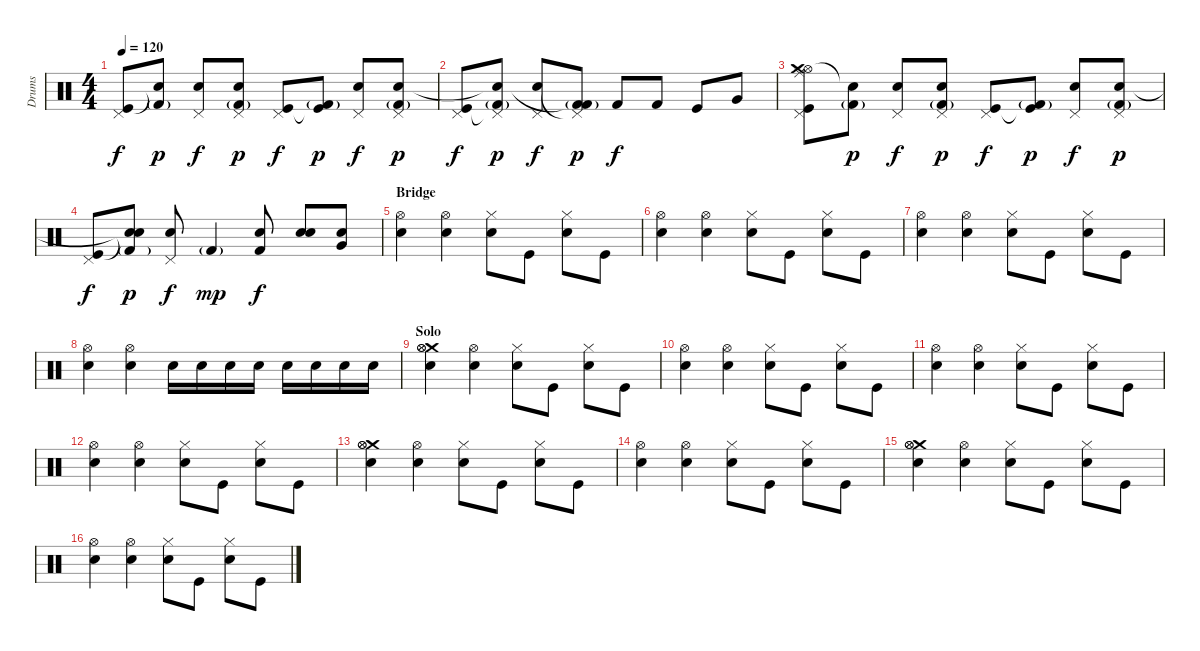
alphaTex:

\track ("Drums" "Drums") {instrument percussion}
\staff {score}
\articulation defaults
\ts (4 4)
\tempo 120
\clef neutral
\ks c
("Pedal Hi-Hat (hit)" "Kick (hit)").8{dy f} ("Kick (hit) 2"{g} "Snare (hit) 2"{t}).8{dy p} ("Pedal Hi-Hat (hit)" "Snare (hit) 2").8{dy f} ("Kick (hit) 2"{g} "Pedal Hi-Hat (hit)" "Snare (hit) 2").8{dy p} ("Pedal Hi-Hat (hit)" "Kick (hit)").8{dy f} ("Kick (hit) 2"{g} "Kick (hit)"{t}).8{dy p} ("Pedal Hi-Hat (hit)" "Snare (hit) 2").8{dy f} ("Kick (hit) 2"{g} "Pedal Hi-Hat (hit)" "Snare (hit) 2").8{dy p} |
("Pedal Hi-Hat (hit)" "Kick (hit)").8{dy f} ("Kick (hit) 2"{g} "Pedal Hi-Hat (hit)"{t} "Snare (hit) 2"{t}).8{dy p} ("Pedal Hi-Hat (hit)" "Snare (hit) 2").8{dy f} ("Kick (hit) 2"{g} "Pedal Hi-Hat (hit)"{t} "Kick (hit) 2"{t}).8{dy p} "Kick (hit) 2".8{dy f} "Kick (hit) 2".8 "Kick (hit)".8 "Very Low Tom (hit)".8 |
("Ride (middle)" "Hi-Hat (open)" "Crash medium (hit)" "Pedal Hi-Hat (hit)" "Kick (hit)").8 ("Kick (hit) 2"{g} "Snare (hit) 2"{t}).8{dy p} ("Pedal Hi-Hat (hit)" "Snare (hit) 2").8{dy f} ("Kick (hit) 2"{g} "Pedal Hi-Hat (hit)" "Snare (hit) 2").8{dy p} ("Pedal Hi-Hat (hit)" "Kick (hit)").8{dy f} ("Kick (hit) 2"{g} "Kick (hit)"{t}).8{dy p} ("Pedal Hi-Hat (hit)" "Snare (hit) 2").8{dy f} ("Kick (hit) 2"{g} "Pedal Hi-Hat (hit)" "Snare (hit) 2").8{dy p} |
("Pedal Hi-Hat (hit)" "Kick (hit)").8{dy f} ("Kick (hit) 2"{g} "Snare (hit)"{t} "Snare (hit)"{t}).8{dy p} ("Pedal Hi-Hat (hit)" "Snare (hit) 2").8{dy f} "Kick (hit) 2"{g}.4{dy mp} ("Kick (hit) 2" "Snare (hit) 2").8{dy f} ("Electric Snare (hit)" "Snare (hit) 2").8 ("Very Low Tom (hit)" "Snare (hit) 2").8 |
\section ("" "Bridge")
("Hi-Hat (open)" "Electric Snare (hit)").4 ("Hi-Hat (open)" "Electric Snare (hit)").4 ("Hi-Hat (closed)" "Electric Snare (hit)").8 "Kick (hit)".8 ("Hi-Hat (closed)" "Electric Snare (hit)").8 "Kick (hit)".8 |
("Hi-Hat (open)" "Electric Snare (hit)").4 ("Hi-Hat (open)" "Electric Snare (hit)").4 ("Hi-Hat (closed)" "Electric Snare (hit)").8 "Kick (hit)".8 ("Hi-Hat (closed)" "Electric Snare (hit)").8 "Kick (hit)".8 |
("Hi-Hat (open)" "Electric Snare (hit)").4 ("Hi-Hat (open)" "Electric Snare (hit)").4 ("Hi-Hat (closed)" "Electric Snare (hit)").8 "Kick (hit)".8 ("Hi-Hat (closed)" "Electric Snare (hit)").8 "Kick (hit)".8 |
("Hi-Hat (open)" "Electric Snare (hit)").4 ("Hi-Hat (open)" "Electric Snare (hit)").4 "Electric Snare (hit)".16 "Snare (hit) 2".16 "Electric Snare (hit)".16 "Snare (hit) 2".16 "Electric Snare (hit)".16 "Snare (hit) 2".16 "Electric Snare (hit)".16 "Snare (hit) 2".16 |
\section ("" "Solo")
("Crash medium (hit)" "Hi-Hat (open)" "Electric Snare (hit)" "Hi-Hat (open)").4 ("Hi-Hat (open)" "Electric Snare (hit)").4 ("Hi-Hat (closed)" "Electric Snare (hit)").8 "Kick (hit)".8 ("Hi-Hat (closed)" "Electric Snare (hit)").8 "Kick (hit)".8 |
("Hi-Hat (open)" "Electric Snare (hit)").4 ("Hi-Hat (open)" "Electric Snare (hit)").4 ("Hi-Hat (closed)" "Electric Snare (hit)").8 "Kick (hit)".8 ("Hi-Hat (closed)" "Electric Snare (hit)").8 "Kick (hit)".8 |
("Hi-Hat (open)" "Electric Snare (hit)").4 ("Hi-Hat (open)" "Electric Snare (hit)").4 ("Hi-Hat (closed)" "Electric Snare (hit)").8 "Kick (hit)".8 ("Hi-Hat (closed)" "Electric Snare (hit)").8 "Kick (hit)".8 |
("Hi-Hat (open)" "Electric Snare (hit)").4 ("Hi-Hat (open)" "Electric Snare (hit)").4 ("Hi-Hat (closed)" "Electric Snare (hit)").8 "Kick (hit)".8 ("Hi-Hat (closed)" "Electric Snare (hit)").8 "Kick (hit)".8 |
("Crash medium (hit)" "Hi-Hat (open)" "Electric Snare (hit)" "Hi-Hat (open)").4 ("Hi-Hat (open)" "Electric Snare (hit)").4 ("Hi-Hat (closed)" "Electric Snare (hit)").8 "Kick (hit)".8 ("Hi-Hat (closed)" "Electric Snare (hit)").8 "Kick (hit)".8 |
("Hi-Hat (open)" "Electric Snare (hit)").4 ("Hi-Hat (open)" "Electric Snare (hit)").4 ("Hi-Hat (closed)" "Electric Snare (hit)").8 "Kick (hit)".8 ("Hi-Hat (closed)" "Electric Snare (hit)").8 "Kick (hit)".8 |
("Crash medium (hit)" "Hi-Hat (open)" "Electric Snare (hit)" "Hi-Hat (open)").4 ("Hi-Hat (open)" "Electric Snare (hit)").4 ("Hi-Hat (closed)" "Electric Snare (hit)").8 "Kick (hit)".8 ("Hi-Hat (closed)" "Electric Snare (hit)").8 "Kick (hit)".8 |
("Hi-Hat (open)" "Electric Snare (hit)").4 ("Hi-Hat (open)" "Electric Snare (hit)").4 ("Hi-Hat (closed)" "Electric Snare (hit)").8 "Kick (hit)".8 ("Hi-Hat (closed)" "Electric Snare (hit)").8 "Kick (hit)".8
